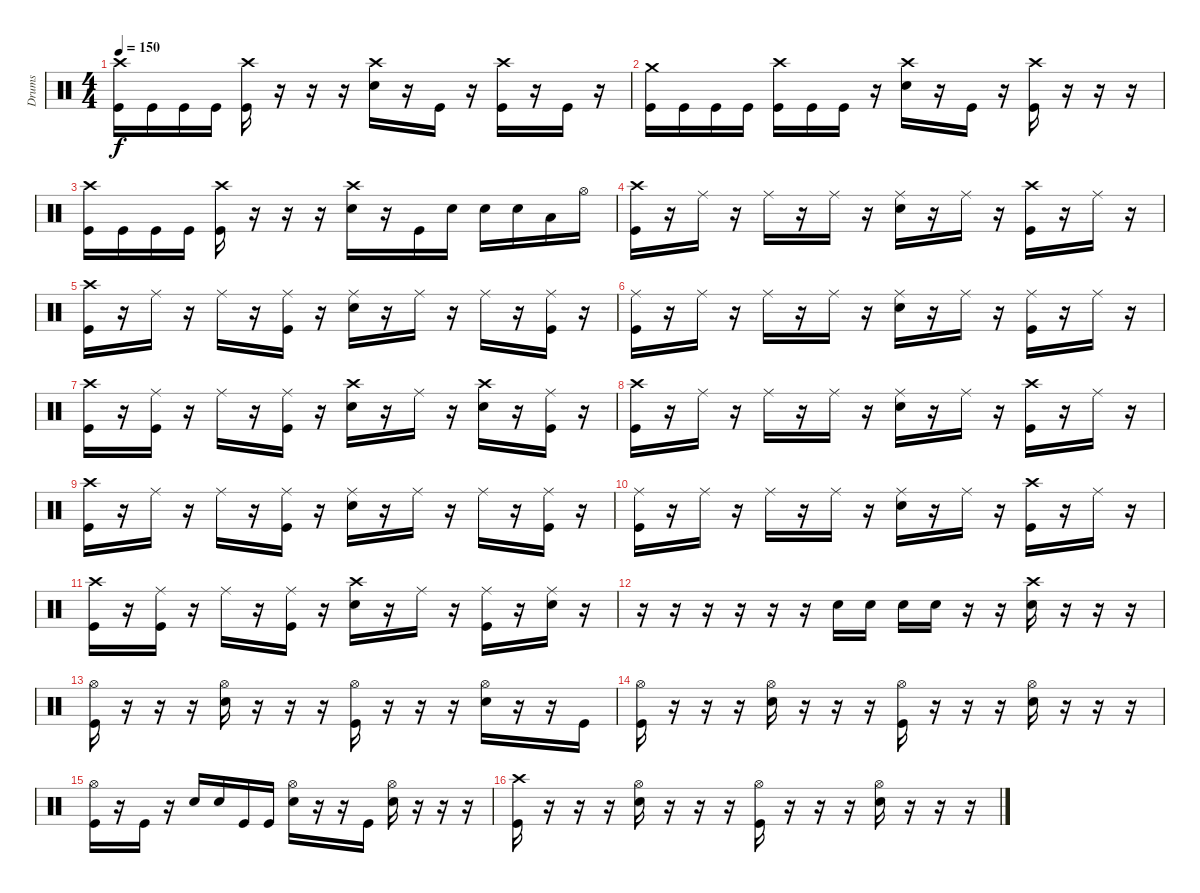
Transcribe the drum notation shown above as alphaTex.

\track ("Drums" "Drums") {instrument percussion}
\staff {score}
\articulation defaults
\ts (4 4)
\tempo 150
\clef neutral
\ks c
("Crash high (hit)" "Kick (hit)").16{dy f} "Kick (hit)".16 "Kick (hit)".16 "Kick (hit)".16 ("Crash high (hit)" "Kick (hit)").16 r.16 r.16 r.16 ("Crash high (hit)" "Electric Snare (hit)").16 r.16 "Kick (hit)".16 r.16 ("Crash high (hit)" "Kick (hit)").16 r.16 "Kick (hit)".16 r.16 |
("Crash medium (hit)" "Kick (hit)").16 "Kick (hit)".16 "Kick (hit)".16 "Kick (hit)".16 ("Crash high (hit)" "Kick (hit)").16 "Kick (hit)".16 "Kick (hit)".16 r.16 ("Crash high (hit)" "Electric Snare (hit)").16 r.16 "Kick (hit)".16 r.16 ("Crash high (hit)" "Kick (hit)").16 r.16 r.16 r.16 |
("Crash high (hit)" "Kick (hit)").16 "Kick (hit)".16 "Kick (hit)".16 "Kick (hit)".16 ("Crash high (hit)" "Kick (hit)").16 r.16 r.16 r.16 ("Crash high (hit)" "Electric Snare (hit)").16 r.16 "Kick (hit)".16 "Electric Snare (hit)".16 "Electric Snare (hit)".16 "Electric Snare (hit)".16 "Low Tom (hit)".16 "Hi-Hat (open)".16 |
("Crash high (hit)" "Kick (hit)").16 r.16 "Ride (middle)".16 r.16 "Ride (middle)".16 r.16 "Ride (middle)".16 r.16 ("Ride (middle)" "Electric Snare (hit)").16 r.16 "Ride (middle)".16 r.16 ("Crash high (hit)" "Kick (hit)").16 r.16 "Ride (middle)".16 r.16 |
("Crash high (hit)" "Kick (hit)").16 r.16 "Ride (middle)".16 r.16 "Ride (middle)".16 r.16 ("Ride (middle)" "Kick (hit)").16 r.16 ("Ride (middle)" "Electric Snare (hit)").16 r.16 "Ride (middle)".16 r.16 "Ride (middle)".16 r.16 ("Ride (middle)" "Kick (hit)").16 r.16 |
("Ride (middle)" "Kick (hit)").16 r.16 "Ride (middle)".16 r.16 "Ride (middle)".16 r.16 "Ride (middle)".16 r.16 ("Ride (middle)" "Electric Snare (hit)").16 r.16 "Ride (middle)".16 r.16 ("Ride (middle)" "Kick (hit)").16 r.16 "Ride (middle)".16 r.16 |
("Crash high (hit)" "Kick (hit)").16 r.16 ("Ride (middle)" "Kick (hit)").16 r.16 "Ride (middle)".16 r.16 ("Ride (middle)" "Kick (hit)").16 r.16 ("Crash high (hit)" "Electric Snare (hit)").16 r.16 "Ride (middle)".16 r.16 ("Crash high (hit)" "Electric Snare (hit)").16 r.16 ("Ride (middle)" "Kick (hit)").16 r.16 |
("Crash high (hit)" "Kick (hit)").16 r.16 "Ride (middle)".16 r.16 "Ride (middle)".16 r.16 "Ride (middle)".16 r.16 ("Ride (middle)" "Electric Snare (hit)").16 r.16 "Ride (middle)".16 r.16 ("Crash high (hit)" "Kick (hit)").16 r.16 "Ride (middle)".16 r.16 |
("Crash high (hit)" "Kick (hit)").16 r.16 "Ride (middle)".16 r.16 "Ride (middle)".16 r.16 ("Ride (middle)" "Kick (hit)").16 r.16 ("Ride (middle)" "Electric Snare (hit)").16 r.16 "Ride (middle)".16 r.16 "Ride (middle)".16 r.16 ("Ride (middle)" "Kick (hit)").16 r.16 |
("Ride (middle)" "Kick (hit)").16 r.16 "Ride (middle)".16 r.16 "Ride (middle)".16 r.16 "Ride (middle)".16 r.16 ("Ride (middle)" "Electric Snare (hit)").16 r.16 "Ride (middle)".16 r.16 ("Crash high (hit)" "Kick (hit)").16 r.16 "Ride (middle)".16 r.16 |
("Crash high (hit)" "Kick (hit)").16 r.16 ("Ride (middle)" "Kick (hit)").16 r.16 "Ride (middle)".16 r.16 ("Ride (middle)" "Kick (hit)").16 r.16 ("Crash high (hit)" "Electric Snare (hit)").16 r.16 "Ride (middle)".16 r.16 ("Ride (middle)" "Kick (hit)").16 r.16 ("Ride (middle)" "Electric Snare (hit)").16 r.16 |
r.16 r.16 r.16 r.16 r.16 r.16 "Electric Snare (hit)".16 "Electric Snare (hit)".16 "Electric Snare (hit)".16 "Electric Snare (hit)".16 r.16 r.16 ("Crash high (hit)" "Electric Snare (hit)").16 r.16 r.16 r.16 |
("Hi-Hat (open)" "Kick (hit)").16 r.16 r.16 r.16 ("Hi-Hat (open)" "Electric Snare (hit)").16 r.16 r.16 r.16 ("Hi-Hat (open)" "Kick (hit)").16 r.16 r.16 r.16 ("Hi-Hat (open)" "Electric Snare (hit)").16 r.16 r.16 "Kick (hit)".16 |
("Hi-Hat (open)" "Kick (hit)").16 r.16 r.16 r.16 ("Hi-Hat (open)" "Electric Snare (hit)").16 r.16 r.16 r.16 ("Hi-Hat (open)" "Kick (hit)").16 r.16 r.16 r.16 ("Hi-Hat (open)" "Electric Snare (hit)").16 r.16 r.16 r.16 |
("Hi-Hat (open)" "Kick (hit)").16 r.16 "Kick (hit)".16 r.16 "Electric Snare (hit)".16 "Electric Snare (hit)".16 "Kick (hit)".16 "Kick (hit)".16 ("Hi-Hat (open)" "Electric Snare (hit)").16 r.16 r.16 "Kick (hit)".16 ("Hi-Hat (open)" "Electric Snare (hit)").16 r.16 r.16 r.16 |
("Crash high (hit)" "Kick (hit)").16 r.16 r.16 r.16 ("Hi-Hat (open)" "Electric Snare (hit)").16 r.16 r.16 r.16 ("Hi-Hat (open)" "Kick (hit)").16 r.16 r.16 r.16 ("Hi-Hat (open)" "Electric Snare (hit)").16 r.16 r.16 r.16
